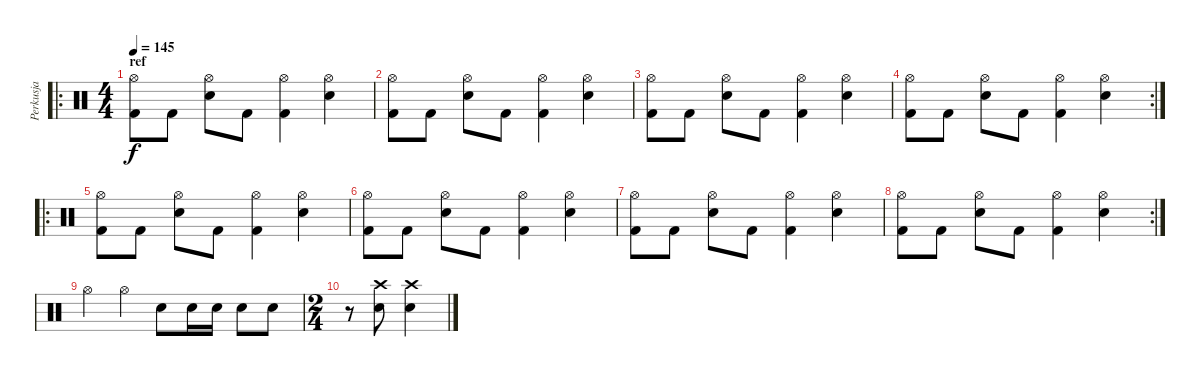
\track ("Perkusja" "Perkusja") {instrument percussion}
\staff {score}
\articulation defaults
\ro
\ts (4 4)
\section ("" "ref")
\tempo 145
\clef neutral
\ks c
("Hi-Hat (open)" "Kick (hit) 2").8{dy f} "Kick (hit) 2".8 ("Hi-Hat (open)" "Electric Snare (hit)").8 "Kick (hit) 2".8 ("Hi-Hat (open)" "Kick (hit) 2").4 ("Hi-Hat (open)" "Electric Snare (hit)").4 |
("Hi-Hat (open)" "Kick (hit) 2").8 "Kick (hit) 2".8 ("Hi-Hat (open)" "Electric Snare (hit)").8 "Kick (hit) 2".8 ("Hi-Hat (open)" "Kick (hit) 2").4 ("Hi-Hat (open)" "Electric Snare (hit)").4 |
("Hi-Hat (open)" "Kick (hit) 2").8 "Kick (hit) 2".8 ("Hi-Hat (open)" "Electric Snare (hit)").8 "Kick (hit) 2".8 ("Hi-Hat (open)" "Kick (hit) 2").4 ("Hi-Hat (open)" "Electric Snare (hit)").4 |
\rc 2
("Hi-Hat (open)" "Kick (hit) 2").8 "Kick (hit) 2".8 ("Hi-Hat (open)" "Electric Snare (hit)").8 "Kick (hit) 2".8 ("Hi-Hat (open)" "Kick (hit) 2").4 ("Hi-Hat (open)" "Electric Snare (hit)").4 |
\ro
("Hi-Hat (open)" "Kick (hit) 2").8 "Kick (hit) 2".8 ("Hi-Hat (open)" "Electric Snare (hit)").8 "Kick (hit) 2".8 ("Hi-Hat (open)" "Kick (hit) 2").4 ("Hi-Hat (open)" "Electric Snare (hit)").4 |
("Hi-Hat (open)" "Kick (hit) 2").8 "Kick (hit) 2".8 ("Hi-Hat (open)" "Electric Snare (hit)").8 "Kick (hit) 2".8 ("Hi-Hat (open)" "Kick (hit) 2").4 ("Hi-Hat (open)" "Electric Snare (hit)").4 |
("Hi-Hat (open)" "Kick (hit) 2").8 "Kick (hit) 2".8 ("Hi-Hat (open)" "Electric Snare (hit)").8 "Kick (hit) 2".8 ("Hi-Hat (open)" "Kick (hit) 2").4 ("Hi-Hat (open)" "Electric Snare (hit)").4 |
\rc 2
("Hi-Hat (open)" "Kick (hit) 2").8 "Kick (hit) 2".8 ("Hi-Hat (open)" "Electric Snare (hit)").8 "Kick (hit) 2".8 ("Hi-Hat (open)" "Kick (hit) 2").4 ("Hi-Hat (open)" "Electric Snare (hit)").4 |
"Hi-Hat (open)".4 "Hi-Hat (open)".4 "Electric Snare (hit)".8 "Electric Snare (hit)".16 "Electric Snare (hit)".16 "Electric Snare (hit)".8 "Electric Snare (hit)".8 |
\ts (2 4)
r.8 ("Crash high (hit)" "Electric Snare (hit)").8 ("Crash high (hit)" "Electric Snare (hit)").4
